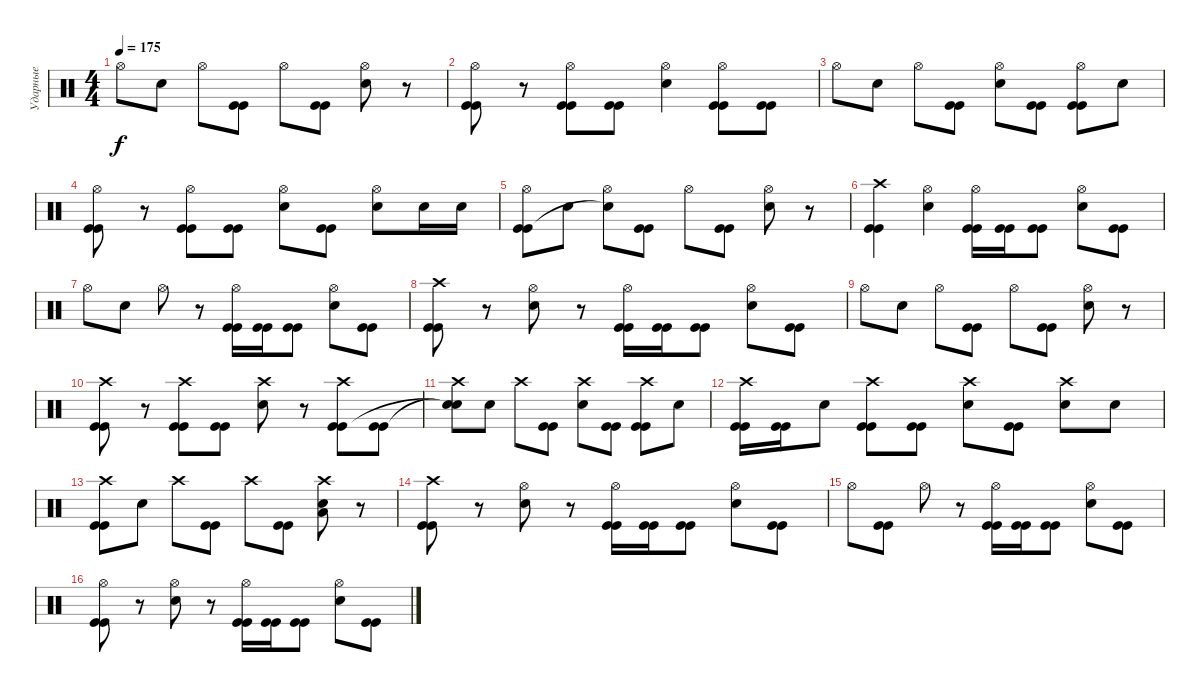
\track ("Ударные" "Ударные") {instrument percussion}
\staff {score}
\articulation defaults
\ts (4 4)
\tempo 175
\clef neutral
\ks c "Hi-Hat (open)".8{dy f} "Snare (hit) 2".8 "Hi-Hat (open)".8
("Kick (hit)" "Kick (hit)").8 "Hi-Hat (open)".8 ("Kick (hit)" "Kick (hit)").8 ("Hi-Hat (open)" "Snare (hit) 2").8 r.8 |
("Hi-Hat (open)" "Kick (hit)" "Kick (hit)").8 r.8 ("Hi-Hat (open)" "Kick (hit)" "Kick (hit)").8 ("Kick (hit)" "Kick (hit)").8 ("Hi-Hat (open)" "Snare (hit) 2").4 ("Hi-Hat (open)" "Kick (hit)" "Kick (hit)").8 ("Kick (hit)" "Kick (hit)").8 |
"Hi-Hat (open)".8 "Snare (hit) 2".8 "Hi-Hat (open)".8 ("Kick (hit)" "Kick (hit)").8 ("Hi-Hat (open)" "Snare (hit) 2").8 ("Kick (hit)" "Kick (hit)").8 ("Hi-Hat (open)" "Kick (hit)" "Kick (hit)").8 "Snare (hit) 2".8 |
("Hi-Hat (open)" "Kick (hit)" "Kick (hit)").8 r.8 ("Hi-Hat (open)" "Kick (hit)" "Kick (hit)").8 ("Kick (hit)" "Kick (hit)").8 ("Hi-Hat (open)" "Snare (hit) 2").8 ("Kick (hit)" "Kick (hit)").8 ("Hi-Hat (open)" "Snare (hit) 2").8 "Snare (hit) 2".16 "Snare (hit) 2".16 |
("Hi-Hat (open)" "Kick (hit)" "Kick (hit)").8 "Snare (hit) 2".8 ("Hi-Hat (open)" "Snare (hit)"{t}).8 ("Kick (hit)" "Kick (hit)").8 "Hi-Hat (open)".8 ("Kick (hit)" "Kick (hit)").8 ("Hi-Hat (open)" "Snare (hit) 2").8 r.8 |
("Crash high (hit)" "Kick (hit)" "Kick (hit)").4 ("Hi-Hat (open)" "Snare (hit) 2").4 ("Hi-Hat (open)" "Kick (hit)" "Kick (hit)").16 ("Kick (hit)" "Kick (hit)").16 ("Kick (hit)" "Kick (hit)").8 ("Hi-Hat (open)" "Snare (hit) 2").8 ("Kick (hit)" "Kick (hit)").8 |
"Hi-Hat (open)".8 "Snare (hit) 2".8 "Hi-Hat (open)".8 r.8 ("Hi-Hat (open)" "Kick (hit)" "Kick (hit)").16 ("Kick (hit)" "Kick (hit)").16 ("Kick (hit)" "Kick (hit)").8 ("Hi-Hat (open)" "Snare (hit) 2").8 ("Kick (hit)" "Kick (hit)").8 |
("Crash high (hit)" "Kick (hit)" "Kick (hit)").8 r.8 ("Hi-Hat (open)" "Snare (hit) 2").8 r.8 ("Hi-Hat (open)" "Kick (hit)" "Kick (hit)").16 ("Kick (hit)" "Kick (hit)").16 ("Kick (hit)" "Kick (hit)").8 ("Hi-Hat (open)" "Snare (hit) 2").8 ("Kick (hit)" "Kick (hit)").8 |
"Hi-Hat (open)".8 "Snare (hit) 2".8 "Hi-Hat (open)".8 ("Kick (hit)" "Kick (hit)").8 "Hi-Hat (open)".8 ("Kick (hit)" "Kick (hit)").8 ("Hi-Hat (open)" "Snare (hit) 2").8 r.8 |
("Crash high (hit)" "Kick (hit)" "Kick (hit)").8 r.8 ("Crash high (hit)" "Kick (hit)" "Kick (hit)").8 ("Kick (hit)" "Kick (hit)").8 ("Crash high (hit)" "Snare (hit) 2").8 r.8 ("Crash high (hit)" "Kick (hit)" "Kick (hit)").8 ("Kick (hit)" "Kick (hit)").8 |
("Crash high (hit)" "Snare (hit)"{t} "Snare (hit)"{t}).8 "Snare (hit) 2".8 "Crash high (hit)".8 ("Kick (hit)" "Kick (hit)").8 ("Crash high (hit)" "Snare (hit) 2").8 ("Kick (hit)" "Kick (hit)").8 ("Crash high (hit)" "Kick (hit)" "Kick (hit)").8 "Snare (hit) 2".8 |
("Crash high (hit)" "Kick (hit)" "Kick (hit)").16 ("Kick (hit)" "Kick (hit)").16 "Snare (hit) 2".8 ("Crash high (hit)" "Kick (hit)" "Kick (hit)").8 ("Kick (hit)" "Kick (hit)").8 ("Crash high (hit)" "Snare (hit) 2").8 ("Kick (hit)" "Kick (hit)").8 ("Crash high (hit)" "Snare (hit) 2").8 "Snare (hit) 2".8 |
("Crash high (hit)" "Kick (hit)" "Kick (hit)").8 "Snare (hit) 2".8 "Crash high (hit)".8 ("Kick (hit)" "Kick (hit)").8 "Crash high (hit)".8 ("Kick (hit)" "Kick (hit)").8 ("Crash high (hit)" "Low Floor Tom (hit)" "Snare (hit) 2").8 r.8 |
("Crash high (hit)" "Kick (hit)" "Kick (hit)").8 r.8 ("Hi-Hat (open)" "Snare (hit) 2").8 r.8 ("Hi-Hat (open)" "Kick (hit)" "Kick (hit)").16 ("Kick (hit)" "Kick (hit)").16 ("Kick (hit)" "Kick (hit)").8 ("Hi-Hat (open)" "Snare (hit) 2").8 ("Kick (hit)" "Kick (hit)").8 |
"Hi-Hat (open)".8 ("Kick (hit)" "Kick (hit)").8 "Hi-Hat (open)".8 r.8 ("Hi-Hat (open)" "Kick (hit)" "Kick (hit)").16 ("Kick (hit)" "Kick (hit)").16 ("Kick (hit)" "Kick (hit)").8 ("Hi-Hat (open)" "Snare (hit) 2").8 ("Kick (hit)" "Kick (hit)").8 |
("Hi-Hat (open)" "Kick (hit)" "Kick (hit)").8 r.8 ("Hi-Hat (open)" "Snare (hit) 2").8 r.8 ("Hi-Hat (open)" "Kick (hit)" "Kick (hit)").16 ("Kick (hit)" "Kick (hit)").16 ("Kick (hit)" "Kick (hit)").8 ("Hi-Hat (open)" "Snare (hit) 2").8 ("Kick (hit)" "Kick (hit)").8
